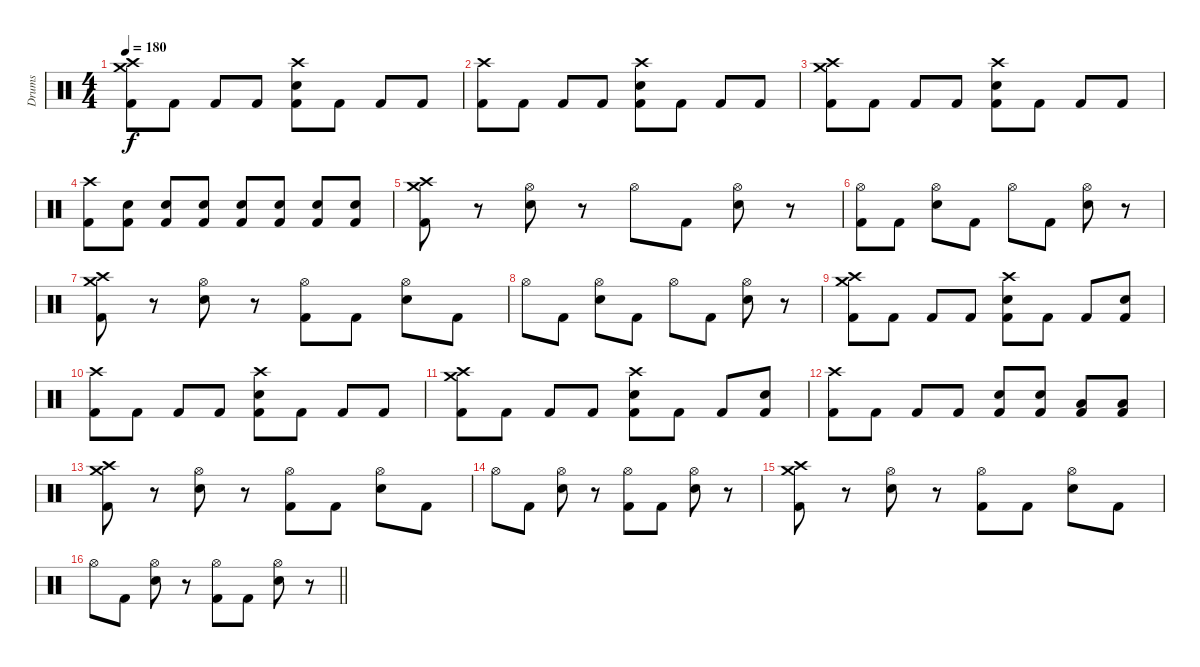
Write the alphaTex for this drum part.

\track ("Drums" "Drums") {instrument percussion}
\staff {score}
\articulation defaults
\ts (4 4)
\tempo 180
\clef neutral
\ks c
("Crash high (hit)" "Crash medium (hit)" "Kick (hit) 2").8{dy f} "Kick (hit) 2".8 "Kick (hit) 2".8 "Kick (hit) 2".8 ("Crash high (hit)" "Electric Snare (hit)" "Kick (hit) 2").8 "Kick (hit) 2".8 "Kick (hit) 2".8 "Kick (hit) 2".8 |
("Crash high (hit)" "Kick (hit) 2").8 "Kick (hit) 2".8 "Kick (hit) 2".8 "Kick (hit) 2".8 ("Crash high (hit)" "Electric Snare (hit)" "Kick (hit) 2").8 "Kick (hit) 2".8 "Kick (hit) 2".8 "Kick (hit) 2".8 |
("Crash high (hit)" "Crash medium (hit)" "Kick (hit) 2").8 "Kick (hit) 2".8 "Kick (hit) 2".8 "Kick (hit) 2".8 ("Crash high (hit)" "Electric Snare (hit)" "Kick (hit) 2").8 "Kick (hit) 2".8 "Kick (hit) 2".8 "Kick (hit) 2".8 |
("Crash high (hit)" "Kick (hit) 2").8 ("Electric Snare (hit)" "Kick (hit) 2").8 ("Electric Snare (hit)" "Kick (hit) 2").8 ("Electric Snare (hit)" "Kick (hit) 2").8 ("Electric Snare (hit)" "Kick (hit) 2").8 ("Electric Snare (hit)" "Kick (hit) 2").8 ("Electric Snare (hit)" "Kick (hit) 2").8 ("Electric Snare (hit)" "Kick (hit) 2").8 |
("Crash medium (hit)" "Crash high (hit)" "Kick (hit) 2").8 r.8 ("Hi-Hat (open)" "Electric Snare (hit)").8 r.8 "Hi-Hat (open)".8 "Kick (hit) 2".8 ("Hi-Hat (open)" "Electric Snare (hit)").8 r.8 |
("Hi-Hat (open)" "Kick (hit) 2").8 "Kick (hit) 2".8 ("Hi-Hat (open)" "Electric Snare (hit)").8 "Kick (hit) 2".8 "Hi-Hat (open)".8 "Kick (hit) 2".8 ("Hi-Hat (open)" "Electric Snare (hit)").8 r.8 |
("Crash medium (hit)" "Crash high (hit)" "Kick (hit) 2").8 r.8 ("Hi-Hat (open)" "Electric Snare (hit)").8 r.8 ("Hi-Hat (open)" "Kick (hit) 2").8 "Kick (hit) 2".8 ("Hi-Hat (open)" "Electric Snare (hit)").8 "Kick (hit) 2".8 |
"Hi-Hat (open)".8 "Kick (hit) 2".8 ("Hi-Hat (open)" "Electric Snare (hit)").8 "Kick (hit) 2".8 "Hi-Hat (open)".8 "Kick (hit) 2".8 ("Hi-Hat (open)" "Electric Snare (hit)").8 r.8 |
("Crash high (hit)" "Crash medium (hit)" "Kick (hit) 2").8 "Kick (hit) 2".8 "Kick (hit) 2".8 "Kick (hit) 2".8 ("Crash high (hit)" "Electric Snare (hit)" "Kick (hit) 2").8 "Kick (hit) 2".8 "Kick (hit) 2".8 ("Electric Snare (hit)" "Kick (hit) 2").8 |
("Crash high (hit)" "Kick (hit) 2").8 "Kick (hit) 2".8 "Kick (hit) 2".8 "Kick (hit) 2".8 ("Crash high (hit)" "Electric Snare (hit)" "Kick (hit) 2").8 "Kick (hit) 2".8 "Kick (hit) 2".8 "Kick (hit) 2".8 |
("Crash high (hit)" "Crash medium (hit)" "Kick (hit) 2").8 "Kick (hit) 2".8 "Kick (hit) 2".8 "Kick (hit) 2".8 ("Crash high (hit)" "Electric Snare (hit)" "Kick (hit) 2").8 "Kick (hit) 2".8 "Kick (hit) 2".8 ("Electric Snare (hit)" "Kick (hit) 2").8 |
("Crash high (hit)" "Kick (hit) 2").8 "Kick (hit) 2".8 "Kick (hit) 2".8 "Kick (hit) 2".8 ("Electric Snare (hit)" "Kick (hit) 2").8 ("Electric Snare (hit)" "Kick (hit) 2").8 ("Low Tom (hit)" "Kick (hit) 2").8 ("Low Tom (hit)" "Kick (hit) 2").8 |
("Crash medium (hit)" "Crash high (hit)" "Kick (hit) 2").8 r.8 ("Hi-Hat (open)" "Electric Snare (hit)").8 r.8 ("Hi-Hat (open)" "Kick (hit) 2").8 "Kick (hit) 2".8 ("Hi-Hat (open)" "Electric Snare (hit)").8 "Kick (hit) 2".8 |
"Hi-Hat (open)".8 "Kick (hit) 2".8 ("Hi-Hat (open)" "Electric Snare (hit)").8 r.8 ("Hi-Hat (open)" "Kick (hit) 2").8 "Kick (hit) 2".8 ("Hi-Hat (open)" "Electric Snare (hit)").8 r.8 |
("Crash medium (hit)" "Crash high (hit)" "Kick (hit) 2").8 r.8 ("Hi-Hat (open)" "Electric Snare (hit)").8 r.8 ("Hi-Hat (open)" "Kick (hit) 2").8 "Kick (hit) 2".8 ("Hi-Hat (open)" "Electric Snare (hit)").8 "Kick (hit) 2".8 |
\barLineRight lightlight "Hi-Hat (open)".8 "Kick (hit) 2".8
("Hi-Hat (open)" "Electric Snare (hit)").8 r.8 ("Hi-Hat (open)" "Kick (hit) 2").8 "Kick (hit) 2".8 ("Hi-Hat (open)" "Electric Snare (hit)").8 r.8
